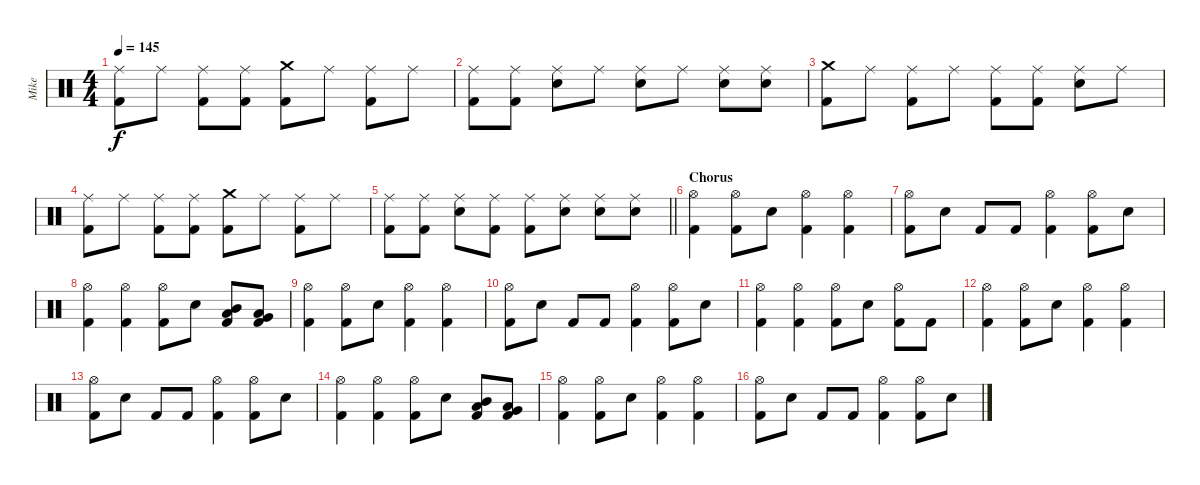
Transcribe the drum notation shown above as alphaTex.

\track ("Mike" "Mike") {instrument percussion}
\staff {score}
\articulation defaults
\ts (4 4)
\tempo 145
\clef neutral
\ks c
("Ride (middle)" "Kick (hit) 2").8{dy f} "Ride (middle)".8 ("Ride (middle)" "Kick (hit) 2").8 ("Ride (middle)" "Kick (hit) 2").8 ("Crash medium (hit)" "Kick (hit) 2").8 "Ride (middle)".8 ("Ride (middle)" "Kick (hit) 2").8 "Ride (middle)".8 |
("Ride (middle)" "Kick (hit) 2").8 ("Ride (middle)" "Kick (hit) 2").8 ("Ride (middle)" "Snare (hit) 2").8 "Ride (middle)".8 ("Ride (middle)" "Snare (hit) 2").8 "Ride (middle)".8 ("Ride (middle)" "Snare (hit) 2").8 ("Ride (middle)" "Snare (hit) 2").8 |
("Crash medium (hit)" "Kick (hit) 2").8 "Ride (middle)".8 ("Ride (middle)" "Kick (hit) 2").8 "Ride (middle)".8 ("Ride (middle)" "Kick (hit) 2").8 ("Ride (middle)" "Kick (hit) 2").8 ("Ride (middle)" "Snare (hit) 2").8 "Ride (middle)".8 |
("Ride (middle)" "Kick (hit) 2").8 "Ride (middle)".8 ("Ride (middle)" "Kick (hit) 2").8 ("Ride (middle)" "Kick (hit) 2").8 ("Crash medium (hit)" "Kick (hit) 2").8 "Ride (middle)".8 ("Ride (middle)" "Kick (hit) 2").8 "Ride (middle)".8 |
\barLineRight lightlight
("Ride (middle)" "Kick (hit) 2").8 ("Ride (middle)" "Kick (hit) 2").8 ("Ride (middle)" "Snare (hit) 2").8 ("Ride (middle)" "Kick (hit) 2").8 ("Ride (middle)" "Kick (hit) 2").8 ("Ride (middle)" "Snare (hit) 2").8 ("Ride (middle)" "Snare (hit) 2").8 ("Ride (middle)" "Snare (hit) 2").8 |
\section ("" "Chorus")
("Hi-Hat (open)" "Kick (hit) 2").4 ("Hi-Hat (open)" "Kick (hit) 2").8 "Snare (hit) 2".8 ("Hi-Hat (open)" "Kick (hit) 2").4 ("Hi-Hat (open)" "Kick (hit) 2").4 |
("Hi-Hat (open)" "Kick (hit) 2").8 "Snare (hit) 2".8 "Kick (hit) 2".8 "Kick (hit) 2".8 ("Hi-Hat (open)" "Kick (hit) 2").4 ("Hi-Hat (open)" "Kick (hit) 2").8 "Snare (hit) 2".8 |
("Hi-Hat (open)" "Kick (hit) 2").4 ("Hi-Hat (open)" "Kick (hit) 2").4 ("Hi-Hat (open)" "Kick (hit) 2").8 "Snare (hit) 2".8 ("Mid Tom (hit)" "Low Tom (hit)" "Kick (hit) 2").8 ("Low Tom (hit)" "Very Low Tom (hit)" "Kick (hit) 2").8 |
("Hi-Hat (open)" "Kick (hit) 2").4 ("Hi-Hat (open)" "Kick (hit) 2").8 "Snare (hit) 2".8 ("Hi-Hat (open)" "Kick (hit) 2").4 ("Hi-Hat (open)" "Kick (hit) 2").4 |
("Hi-Hat (open)" "Kick (hit) 2").8 "Snare (hit) 2".8 "Kick (hit) 2".8 "Kick (hit) 2".8 ("Hi-Hat (open)" "Kick (hit) 2").4 ("Hi-Hat (open)" "Kick (hit) 2").8 "Snare (hit) 2".8 |
("Hi-Hat (open)" "Kick (hit) 2").4 ("Hi-Hat (open)" "Kick (hit) 2").4 ("Hi-Hat (open)" "Kick (hit) 2").8 "Snare (hit) 2".8 ("Hi-Hat (open)" "Kick (hit) 2").8 "Kick (hit) 2".8 |
("Hi-Hat (open)" "Kick (hit) 2").4 ("Hi-Hat (open)" "Kick (hit) 2").8 "Snare (hit) 2".8 ("Hi-Hat (open)" "Kick (hit) 2").4 ("Hi-Hat (open)" "Kick (hit) 2").4 |
("Hi-Hat (open)" "Kick (hit) 2").8 "Snare (hit) 2".8 "Kick (hit) 2".8 "Kick (hit) 2".8 ("Hi-Hat (open)" "Kick (hit) 2").4 ("Hi-Hat (open)" "Kick (hit) 2").8 "Snare (hit) 2".8 |
("Hi-Hat (open)" "Kick (hit) 2").4 ("Hi-Hat (open)" "Kick (hit) 2").4 ("Hi-Hat (open)" "Kick (hit) 2").8 "Snare (hit) 2".8 ("Mid Tom (hit)" "Low Tom (hit)" "Kick (hit) 2").8 ("Low Tom (hit)" "Very Low Tom (hit)" "Kick (hit) 2").8 |
("Hi-Hat (open)" "Kick (hit) 2").4 ("Hi-Hat (open)" "Kick (hit) 2").8 "Snare (hit) 2".8 ("Hi-Hat (open)" "Kick (hit) 2").4 ("Hi-Hat (open)" "Kick (hit) 2").4 |
("Hi-Hat (open)" "Kick (hit) 2").8 "Snare (hit) 2".8 "Kick (hit) 2".8 "Kick (hit) 2".8 ("Hi-Hat (open)" "Kick (hit) 2").4 ("Hi-Hat (open)" "Kick (hit) 2").8 "Snare (hit) 2".8
